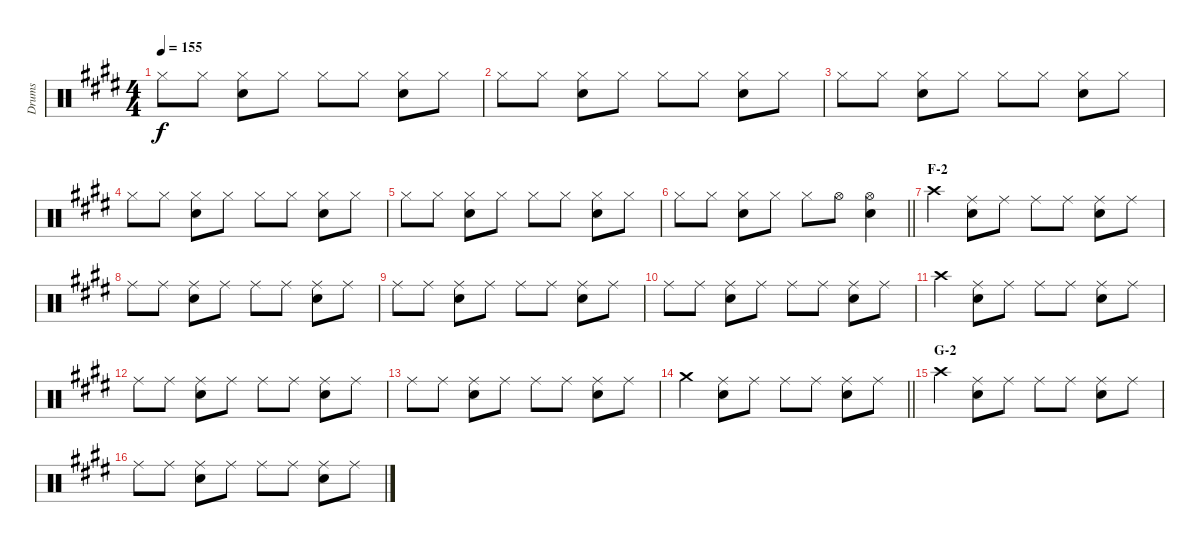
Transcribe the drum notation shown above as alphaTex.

\track ("Drums" "Drums") {instrument percussion}
\staff {score}
\articulation defaults
\ts (4 4)
\tempo 155
\clef neutral
\ks e "Hi-Hat (closed)".8{dy f} "Hi-Hat (closed)".8
("Hi-Hat (closed)" "Snare (hit) 2").8 "Hi-Hat (closed)".8 "Hi-Hat (closed)".8 "Hi-Hat (closed)".8 ("Hi-Hat (closed)" "Snare (hit) 2").8 "Hi-Hat (closed)".8 |
"Hi-Hat (closed)".8 "Hi-Hat (closed)".8 ("Hi-Hat (closed)" "Snare (hit) 2").8 "Hi-Hat (closed)".8 "Hi-Hat (closed)".8 "Hi-Hat (closed)".8 ("Hi-Hat (closed)" "Snare (hit) 2").8 "Hi-Hat (closed)".8 |
"Hi-Hat (closed)".8 "Hi-Hat (closed)".8 ("Hi-Hat (closed)" "Snare (hit) 2").8 "Hi-Hat (closed)".8 "Hi-Hat (closed)".8 "Hi-Hat (closed)".8 ("Hi-Hat (closed)" "Snare (hit) 2").8 "Hi-Hat (closed)".8 |
"Hi-Hat (closed)".8 "Hi-Hat (closed)".8 ("Hi-Hat (closed)" "Snare (hit) 2").8 "Hi-Hat (closed)".8 "Hi-Hat (closed)".8 "Hi-Hat (closed)".8 ("Hi-Hat (closed)" "Snare (hit) 2").8 "Hi-Hat (closed)".8 |
"Hi-Hat (closed)".8 "Hi-Hat (closed)".8 ("Hi-Hat (closed)" "Snare (hit) 2").8 "Hi-Hat (closed)".8 "Hi-Hat (closed)".8 "Hi-Hat (closed)".8 ("Hi-Hat (closed)" "Snare (hit) 2").8 "Hi-Hat (closed)".8 |
\barLineRight lightlight "Hi-Hat (closed)".8 "Hi-Hat (closed)".8
("Hi-Hat (closed)" "Snare (hit) 2").8 "Hi-Hat (closed)".8 "Hi-Hat (closed)".8 "Hi-Hat (open)".8 ("Hi-Hat (open)" "Snare (hit) 2").4 |
\section ("" "F-2")
"Crash high (hit)".4 ("Ride (middle)" "Snare (hit) 2").8 "Ride (middle)".8 "Ride (middle)".8 "Ride (middle)".8 ("Ride (middle)" "Snare (hit) 2").8 "Ride (middle)".8 |
"Ride (middle)".8 "Ride (middle)".8 ("Ride (middle)" "Snare (hit) 2").8 "Ride (middle)".8 "Ride (middle)".8 "Ride (middle)".8 ("Ride (middle)" "Snare (hit) 2").8 "Ride (middle)".8 |
"Ride (middle)".8 "Ride (middle)".8 ("Ride (middle)" "Snare (hit) 2").8 "Ride (middle)".8 "Ride (middle)".8 "Ride (middle)".8 ("Ride (middle)" "Snare (hit) 2").8 "Ride (middle)".8 |
"Ride (middle)".8 "Ride (middle)".8 ("Ride (middle)" "Snare (hit) 2").8 "Ride (middle)".8 "Ride (middle)".8 "Ride (middle)".8 ("Ride (middle)" "Snare (hit) 2").8 "Ride (middle)".8 |
"Crash high (hit)".4 ("Ride (middle)" "Snare (hit) 2").8 "Ride (middle)".8 "Ride (middle)".8 "Ride (middle)".8 ("Ride (middle)" "Snare (hit) 2").8 "Ride (middle)".8 |
"Ride (middle)".8 "Ride (middle)".8 ("Ride (middle)" "Snare (hit) 2").8 "Ride (middle)".8 "Ride (middle)".8 "Ride (middle)".8 ("Ride (middle)" "Snare (hit) 2").8 "Ride (middle)".8 |
"Ride (middle)".8 "Ride (middle)".8 ("Ride (middle)" "Snare (hit) 2").8 "Ride (middle)".8 "Ride (middle)".8 "Ride (middle)".8 ("Ride (middle)" "Snare (hit) 2").8 "Ride (middle)".8 |
\barLineRight lightlight "Crash medium (hit)".4
("Ride (middle)" "Snare (hit) 2").8 "Ride (middle)".8 "Ride (middle)".8 "Ride (middle)".8 ("Ride (middle)" "Snare (hit) 2").8 "Ride (middle)".8 |
\section ("" "G-2")
"Crash high (hit)".4 ("Ride (middle)" "Snare (hit) 2").8 "Ride (middle)".8 "Ride (middle)".8 "Ride (middle)".8 ("Ride (middle)" "Snare (hit) 2").8 "Ride (middle)".8 |
"Ride (middle)".8 "Ride (middle)".8 ("Ride (middle)" "Snare (hit) 2").8 "Ride (middle)".8 "Ride (middle)".8 "Ride (middle)".8 ("Ride (middle)" "Snare (hit) 2").8 "Ride (middle)".8
